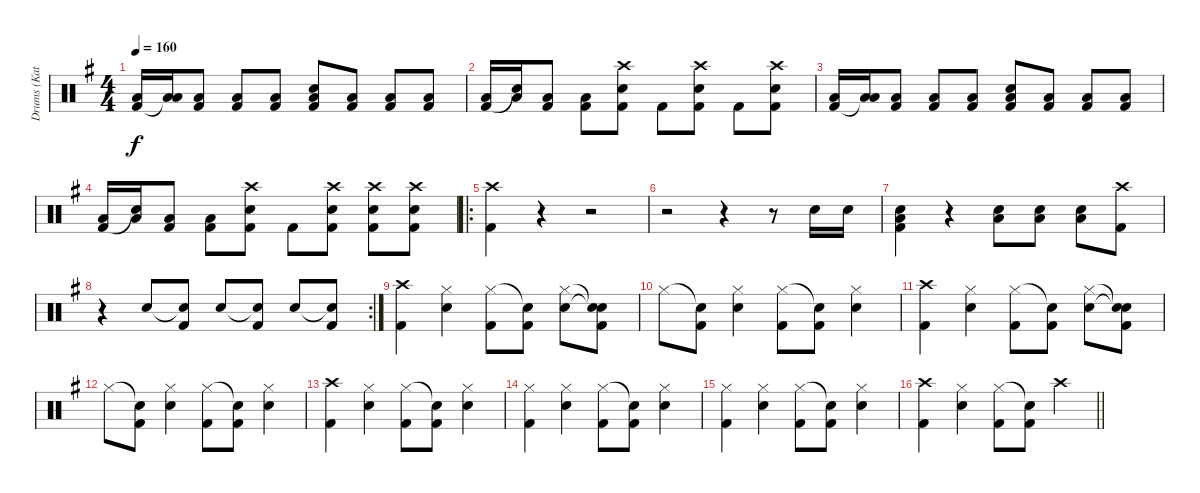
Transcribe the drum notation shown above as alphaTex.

\track ("Drums (Katsuji)" "Drums (Kat") {instrument percussion}
\staff {score}
\articulation defaults
\ts (4 4)
\tempo 160
\clef neutral
\ks g
("Low Tom (hit)" "Kick (hit) 2").16{dy f} ("Low Tom (hit)" "Low Floor Tom (hit)"{t}).16 ("Low Tom (hit)" "Kick (hit) 2").8 ("Low Tom (hit)" "Kick (hit) 2").8 ("Low Tom (hit)" "Kick (hit) 2").8 ("Snare (hit) 2" "Low Tom (hit)" "Kick (hit) 2").8 ("Low Tom (hit)" "Kick (hit) 2").8 ("Low Tom (hit)" "Kick (hit) 2").8 ("Low Tom (hit)" "Kick (hit) 2").8 |
("Low Tom (hit)" "Kick (hit) 2").16 ("Low Tom (hit)" "Snare (hit)"{t}).16 ("Low Tom (hit)" "Kick (hit) 2").8 ("Low Tom (hit)" "Kick (hit) 2").8 ("Crash high (hit)" "Snare (hit) 2" "Kick (hit) 2").8 "Kick (hit) 2".8 ("Crash high (hit)" "Snare (hit) 2" "Kick (hit) 2").8 "Kick (hit) 2".8 ("Crash high (hit)" "Snare (hit) 2" "Kick (hit) 2").8 |
("Low Tom (hit)" "Kick (hit) 2").16 ("Low Tom (hit)" "Low Floor Tom (hit)"{t}).16 ("Low Tom (hit)" "Kick (hit) 2").8 ("Low Tom (hit)" "Kick (hit) 2").8 ("Low Tom (hit)" "Kick (hit) 2").8 ("Snare (hit) 2" "Low Tom (hit)" "Kick (hit) 2").8 ("Low Tom (hit)" "Kick (hit) 2").8 ("Low Tom (hit)" "Kick (hit) 2").8 ("Low Tom (hit)" "Kick (hit) 2").8 |
("Low Tom (hit)" "Kick (hit) 2").16 ("Low Tom (hit)" "Snare (hit)"{t}).16 ("Low Tom (hit)" "Kick (hit) 2").8 ("Low Tom (hit)" "Kick (hit) 2").8 ("Crash high (hit)" "Snare (hit) 2" "Kick (hit) 2").8 "Kick (hit) 2".8 ("Crash high (hit)" "Snare (hit) 2" "Kick (hit) 2").8 ("Crash high (hit)" "Snare (hit) 2" "Kick (hit) 2").8 ("Crash high (hit)" "Snare (hit) 2" "Kick (hit) 2").8 |
\ro
("Crash high (hit)" "Kick (hit) 2").4 r.4 r.2 |
r.2 r.4 r.8 "Snare (hit) 2".16 "Snare (hit) 2".16 |
("Snare (hit) 2" "Low Tom (hit)" "Kick (hit) 2").4 r.4 ("Snare (hit) 2" "Low Tom (hit)").8 ("Snare (hit) 2" "Low Tom (hit)").8 ("Snare (hit) 2" "Low Tom (hit)").8 ("Crash high (hit)" "Kick (hit) 2").8 |
\rc 2
r.4 "Snare (hit) 2".8 ("Snare (hit)"{t} "Kick (hit) 2").8 "Snare (hit) 2".8 ("Snare (hit)"{t} "Kick (hit) 2").8 "Snare (hit) 2".8 ("Snare (hit)"{t} "Kick (hit) 2").8 |
("Crash high (hit)" "Kick (hit) 2").4 ("Hi-Hat (closed)" "Snare (hit) 2").4 ("Hi-Hat (closed)" "Kick (hit) 2").8 ("Snare (hit)"{t} "Kick (hit) 2").8 ("Hi-Hat (closed)" "Snare (hit) 2").8 ("Snare (hit)"{t} "Snare (hit)"{t} "Kick (hit) 2").8 |
"Hi-Hat (closed)".8 ("Snare (hit)"{t} "Kick (hit) 2").8 ("Hi-Hat (closed)" "Snare (hit) 2").4 ("Hi-Hat (closed)" "Kick (hit) 2").8 ("Snare (hit)"{t} "Kick (hit) 2").8 ("Hi-Hat (closed)" "Snare (hit) 2").4 |
("Crash high (hit)" "Kick (hit) 2").4 ("Hi-Hat (closed)" "Snare (hit) 2").4 ("Hi-Hat (closed)" "Kick (hit) 2").8 ("Snare (hit)"{t} "Kick (hit) 2").8 ("Hi-Hat (closed)" "Snare (hit) 2").8 ("Snare (hit)"{t} "Snare (hit)"{t} "Kick (hit) 2").8 |
"Hi-Hat (closed)".8 ("Snare (hit)"{t} "Kick (hit) 2").8 ("Hi-Hat (closed)" "Snare (hit) 2").4 ("Hi-Hat (closed)" "Kick (hit) 2").8 ("Snare (hit)"{t} "Kick (hit) 2").8 ("Hi-Hat (closed)" "Snare (hit) 2").4 |
("Crash high (hit)" "Kick (hit) 2").4 ("Hi-Hat (closed)" "Snare (hit) 2").4 ("Hi-Hat (closed)" "Kick (hit) 2").8 ("Snare (hit)"{t} "Kick (hit) 2").8 ("Hi-Hat (closed)" "Snare (hit) 2").4 |
("Hi-Hat (closed)" "Kick (hit) 2").4 ("Hi-Hat (closed)" "Snare (hit) 2").4 ("Hi-Hat (closed)" "Kick (hit) 2").8 ("Snare (hit)"{t} "Kick (hit) 2").8 ("Hi-Hat (closed)" "Snare (hit) 2").4 |
("Hi-Hat (closed)" "Kick (hit) 2").4 ("Hi-Hat (closed)" "Snare (hit) 2").4 ("Hi-Hat (closed)" "Kick (hit) 2").8 ("Snare (hit)"{t} "Kick (hit) 2").8 ("Hi-Hat (closed)" "Snare (hit) 2").4 |
\barLineRight lightlight
("Crash high (hit)" "Kick (hit) 2").4 ("Hi-Hat (closed)" "Snare (hit) 2").4 ("Hi-Hat (closed)" "Kick (hit) 2").8 ("Snare (hit)"{t} "Kick (hit) 2").8 "Crash high (hit)".4
